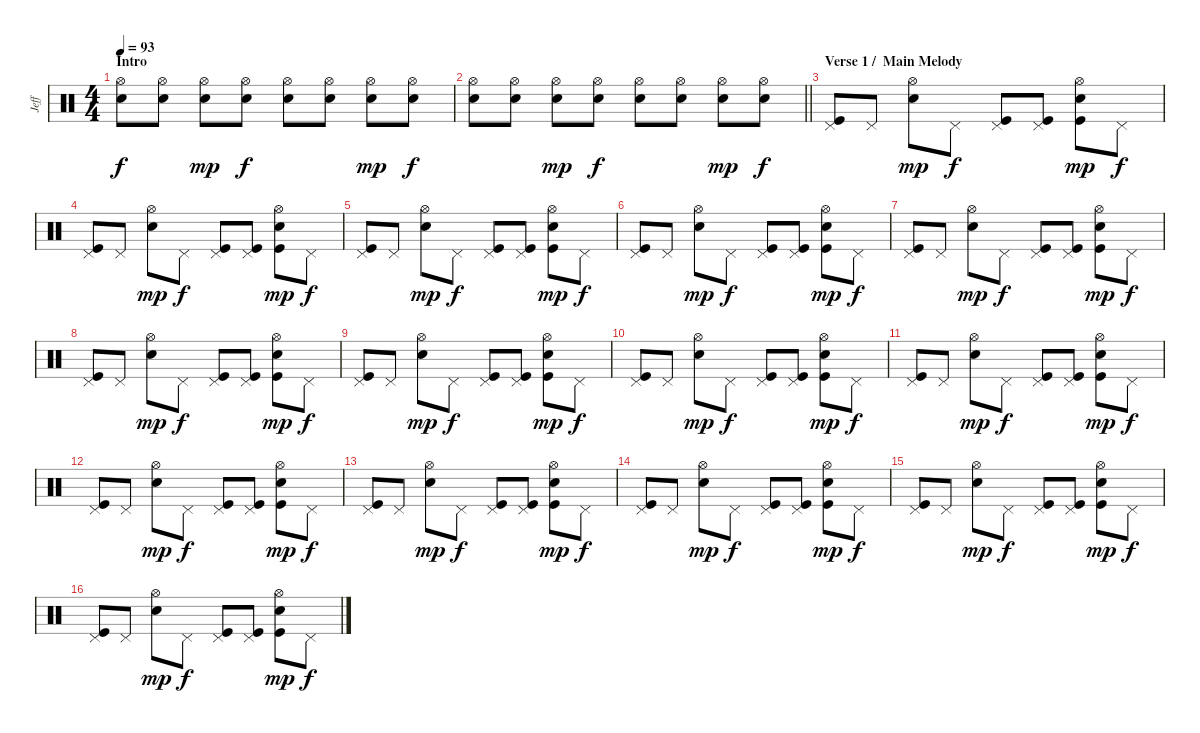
\track ("Jeff" "Jeff") {instrument percussion}
\staff {score}
\articulation defaults
\ts (4 4)
\section ("" "Intro")
\tempo 93
\clef neutral
\ks c
("Hi-Hat (open)" "Snare (hit) 2").8{dy f volume 9} ("Hi-Hat (open)" "Snare (hit) 2").8 ("Hi-Hat (open)" "Snare (hit) 2").8{dy mp} ("Hi-Hat (open)" "Snare (hit) 2").8{dy f} ("Hi-Hat (open)" "Snare (hit) 2").8 ("Hi-Hat (open)" "Snare (hit) 2").8{volume 11} ("Hi-Hat (open)" "Snare (hit) 2").8{dy mp} ("Hi-Hat (open)" "Snare (hit) 2").8{dy f} |
\barLineRight lightlight
("Hi-Hat (open)" "Snare (hit) 2").8{volume 14} ("Hi-Hat (open)" "Snare (hit) 2").8 ("Hi-Hat (open)" "Snare (hit) 2").8{dy mp} ("Hi-Hat (open)" "Snare (hit) 2").8{dy f} ("Hi-Hat (open)" "Snare (hit) 2").8 ("Hi-Hat (open)" "Snare (hit) 2").8 ("Hi-Hat (open)" "Snare (hit) 2").8{dy mp} ("Hi-Hat (open)" "Snare (hit) 2").8{dy f} |
\section ("" "Verse 1 /  Main Melody")
("Pedal Hi-Hat (hit)" "Kick (hit)").8{volume 16} "Pedal Hi-Hat (hit)".8 ("Hi-Hat (open)" "Snare (hit) 2").8{dy mp} "Pedal Hi-Hat (hit)".8{dy f} ("Pedal Hi-Hat (hit)" "Kick (hit)").8 ("Pedal Hi-Hat (hit)" "Kick (hit)").8 ("Hi-Hat (open)" "Snare (hit) 2" "Kick (hit)").8{dy mp} "Pedal Hi-Hat (hit)".8{dy f} |
("Pedal Hi-Hat (hit)" "Kick (hit)").8 "Pedal Hi-Hat (hit)".8 ("Hi-Hat (open)" "Snare (hit) 2").8{dy mp} "Pedal Hi-Hat (hit)".8{dy f} ("Pedal Hi-Hat (hit)" "Kick (hit)").8 ("Pedal Hi-Hat (hit)" "Kick (hit)").8 ("Hi-Hat (open)" "Snare (hit) 2" "Kick (hit)").8{dy mp} "Pedal Hi-Hat (hit)".8{dy f} |
("Pedal Hi-Hat (hit)" "Kick (hit)").8 "Pedal Hi-Hat (hit)".8 ("Hi-Hat (open)" "Snare (hit) 2").8{dy mp} "Pedal Hi-Hat (hit)".8{dy f} ("Pedal Hi-Hat (hit)" "Kick (hit)").8 ("Pedal Hi-Hat (hit)" "Kick (hit)").8 ("Hi-Hat (open)" "Snare (hit) 2" "Kick (hit)").8{dy mp} "Pedal Hi-Hat (hit)".8{dy f} |
("Pedal Hi-Hat (hit)" "Kick (hit)").8 "Pedal Hi-Hat (hit)".8 ("Hi-Hat (open)" "Snare (hit) 2").8{dy mp} "Pedal Hi-Hat (hit)".8{dy f} ("Pedal Hi-Hat (hit)" "Kick (hit)").8 ("Pedal Hi-Hat (hit)" "Kick (hit)").8 ("Hi-Hat (open)" "Snare (hit) 2" "Kick (hit)").8{dy mp} "Pedal Hi-Hat (hit)".8{dy f} |
("Pedal Hi-Hat (hit)" "Kick (hit)").8 "Pedal Hi-Hat (hit)".8 ("Hi-Hat (open)" "Snare (hit) 2").8{dy mp} "Pedal Hi-Hat (hit)".8{dy f} ("Pedal Hi-Hat (hit)" "Kick (hit)").8 ("Pedal Hi-Hat (hit)" "Kick (hit)").8 ("Hi-Hat (open)" "Snare (hit) 2" "Kick (hit)").8{dy mp} "Pedal Hi-Hat (hit)".8{dy f} |
("Pedal Hi-Hat (hit)" "Kick (hit)").8 "Pedal Hi-Hat (hit)".8 ("Hi-Hat (open)" "Snare (hit) 2").8{dy mp} "Pedal Hi-Hat (hit)".8{dy f} ("Pedal Hi-Hat (hit)" "Kick (hit)").8 ("Pedal Hi-Hat (hit)" "Kick (hit)").8 ("Hi-Hat (open)" "Snare (hit) 2" "Kick (hit)").8{dy mp} "Pedal Hi-Hat (hit)".8{dy f} |
("Pedal Hi-Hat (hit)" "Kick (hit)").8 "Pedal Hi-Hat (hit)".8 ("Hi-Hat (open)" "Snare (hit) 2").8{dy mp} "Pedal Hi-Hat (hit)".8{dy f} ("Pedal Hi-Hat (hit)" "Kick (hit)").8 ("Pedal Hi-Hat (hit)" "Kick (hit)").8 ("Hi-Hat (open)" "Snare (hit) 2" "Kick (hit)").8{dy mp} "Pedal Hi-Hat (hit)".8{dy f} |
("Pedal Hi-Hat (hit)" "Kick (hit)").8 "Pedal Hi-Hat (hit)".8 ("Hi-Hat (open)" "Snare (hit) 2").8{dy mp} "Pedal Hi-Hat (hit)".8{dy f} ("Pedal Hi-Hat (hit)" "Kick (hit)").8 ("Pedal Hi-Hat (hit)" "Kick (hit)").8 ("Hi-Hat (open)" "Snare (hit) 2" "Kick (hit)").8{dy mp} "Pedal Hi-Hat (hit)".8{dy f} |
("Pedal Hi-Hat (hit)" "Kick (hit)").8 "Pedal Hi-Hat (hit)".8 ("Hi-Hat (open)" "Snare (hit) 2").8{dy mp} "Pedal Hi-Hat (hit)".8{dy f} ("Pedal Hi-Hat (hit)" "Kick (hit)").8 ("Pedal Hi-Hat (hit)" "Kick (hit)").8 ("Hi-Hat (open)" "Snare (hit) 2" "Kick (hit)").8{dy mp} "Pedal Hi-Hat (hit)".8{dy f} |
("Pedal Hi-Hat (hit)" "Kick (hit)").8 "Pedal Hi-Hat (hit)".8 ("Hi-Hat (open)" "Snare (hit) 2").8{dy mp} "Pedal Hi-Hat (hit)".8{dy f} ("Pedal Hi-Hat (hit)" "Kick (hit)").8 ("Pedal Hi-Hat (hit)" "Kick (hit)").8 ("Hi-Hat (open)" "Snare (hit) 2" "Kick (hit)").8{dy mp} "Pedal Hi-Hat (hit)".8{dy f} |
("Pedal Hi-Hat (hit)" "Kick (hit)").8 "Pedal Hi-Hat (hit)".8 ("Hi-Hat (open)" "Snare (hit) 2").8{dy mp} "Pedal Hi-Hat (hit)".8{dy f} ("Pedal Hi-Hat (hit)" "Kick (hit)").8 ("Pedal Hi-Hat (hit)" "Kick (hit)").8 ("Hi-Hat (open)" "Snare (hit) 2" "Kick (hit)").8{dy mp} "Pedal Hi-Hat (hit)".8{dy f} |
("Pedal Hi-Hat (hit)" "Kick (hit)").8 "Pedal Hi-Hat (hit)".8 ("Hi-Hat (open)" "Snare (hit) 2").8{dy mp} "Pedal Hi-Hat (hit)".8{dy f} ("Pedal Hi-Hat (hit)" "Kick (hit)").8 ("Pedal Hi-Hat (hit)" "Kick (hit)").8 ("Hi-Hat (open)" "Snare (hit) 2" "Kick (hit)").8{dy mp} "Pedal Hi-Hat (hit)".8{dy f} |
("Pedal Hi-Hat (hit)" "Kick (hit)").8 "Pedal Hi-Hat (hit)".8 ("Hi-Hat (open)" "Snare (hit) 2").8{dy mp} "Pedal Hi-Hat (hit)".8{dy f} ("Pedal Hi-Hat (hit)" "Kick (hit)").8 ("Pedal Hi-Hat (hit)" "Kick (hit)").8 ("Hi-Hat (open)" "Snare (hit) 2" "Kick (hit)").8{dy mp} "Pedal Hi-Hat (hit)".8{dy f} |
("Pedal Hi-Hat (hit)" "Kick (hit)").8 "Pedal Hi-Hat (hit)".8 ("Hi-Hat (open)" "Snare (hit) 2").8{dy mp} "Pedal Hi-Hat (hit)".8{dy f} ("Pedal Hi-Hat (hit)" "Kick (hit)").8 ("Pedal Hi-Hat (hit)" "Kick (hit)").8 ("Hi-Hat (open)" "Snare (hit) 2" "Kick (hit)").8{dy mp} "Pedal Hi-Hat (hit)".8{dy f}
